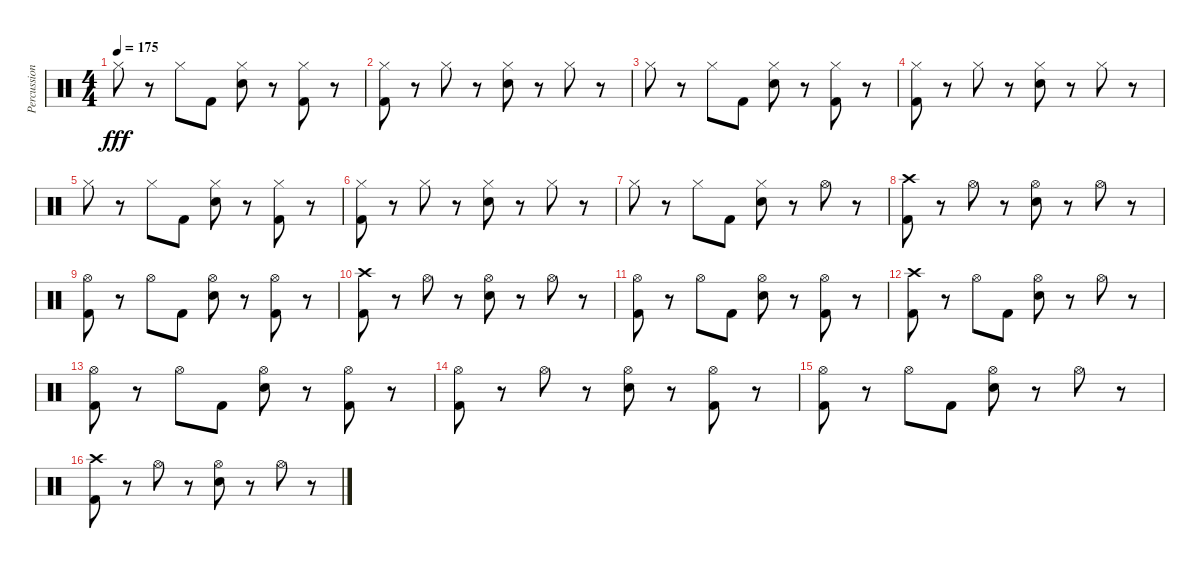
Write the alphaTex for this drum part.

\track ("Percussion" "Percussion") {instrument percussion}
\staff {score}
\articulation defaults
\ts (4 4)
\tempo 175
\clef neutral
\ks c "Hi-Hat (closed)".8{dy fff}
r.8 "Hi-Hat (closed)".8 "Kick (hit) 2".8 ("Hi-Hat (closed)" "Electric Snare (hit)").8 r.8 ("Hi-Hat (closed)" "Kick (hit) 2").8 r.8 |
("Hi-Hat (closed)" "Kick (hit) 2").8 r.8 "Hi-Hat (closed)".8 r.8 ("Hi-Hat (closed)" "Electric Snare (hit)").8 r.8 "Hi-Hat (closed)".8 r.8 |
"Hi-Hat (closed)".8 r.8 "Hi-Hat (closed)".8 "Kick (hit) 2".8 ("Hi-Hat (closed)" "Electric Snare (hit)").8 r.8 ("Hi-Hat (closed)" "Kick (hit) 2").8 r.8 |
("Hi-Hat (closed)" "Kick (hit) 2").8 r.8 "Hi-Hat (closed)".8 r.8 ("Hi-Hat (closed)" "Electric Snare (hit)").8 r.8 "Hi-Hat (closed)".8 r.8 |
"Hi-Hat (closed)".8 r.8 "Hi-Hat (closed)".8 "Kick (hit) 2".8 ("Hi-Hat (closed)" "Electric Snare (hit)").8 r.8 ("Hi-Hat (closed)" "Kick (hit) 2").8 r.8 |
("Hi-Hat (closed)" "Kick (hit) 2").8 r.8 "Hi-Hat (closed)".8 r.8 ("Hi-Hat (closed)" "Electric Snare (hit)").8 r.8 "Hi-Hat (closed)".8 r.8 |
"Hi-Hat (closed)".8 r.8 "Hi-Hat (closed)".8 "Kick (hit) 2".8 ("Hi-Hat (closed)" "Electric Snare (hit)").8 r.8 "Hi-Hat (open)".8 r.8 |
("Crash high (hit)" "Kick (hit) 2").8 r.8 "Hi-Hat (open)".8 r.8 ("Hi-Hat (open)" "Electric Snare (hit)").8 r.8 "Hi-Hat (open)".8 r.8 |
("Hi-Hat (open)" "Kick (hit) 2").8 r.8 "Hi-Hat (open)".8 "Kick (hit) 2".8 ("Hi-Hat (open)" "Electric Snare (hit)").8 r.8 ("Hi-Hat (open)" "Kick (hit) 2").8 r.8 |
("Crash high (hit)" "Kick (hit) 2").8 r.8 "Hi-Hat (open)".8 r.8 ("Hi-Hat (open)" "Electric Snare (hit)").8 r.8 "Hi-Hat (open)".8 r.8 |
("Hi-Hat (open)" "Kick (hit) 2").8 r.8 "Hi-Hat (open)".8 "Kick (hit) 2".8 ("Hi-Hat (open)" "Electric Snare (hit)").8 r.8 ("Hi-Hat (open)" "Kick (hit) 2").8 r.8 |
("Crash high (hit)" "Kick (hit) 2").8 r.8 "Hi-Hat (open)".8 "Kick (hit) 2".8 ("Hi-Hat (open)" "Electric Snare (hit)").8 r.8 "Hi-Hat (open)".8 r.8 |
("Hi-Hat (open)" "Kick (hit) 2").8 r.8 "Hi-Hat (open)".8 "Kick (hit) 2".8 ("Hi-Hat (open)" "Electric Snare (hit)").8 r.8 ("Hi-Hat (open)" "Kick (hit) 2").8 r.8 |
("Hi-Hat (open)" "Kick (hit) 2").8 r.8 "Hi-Hat (open)".8 r.8 ("Hi-Hat (open)" "Electric Snare (hit)").8 r.8 ("Hi-Hat (open)" "Kick (hit) 2").8 r.8 |
("Hi-Hat (open)" "Kick (hit) 2").8 r.8 "Hi-Hat (open)".8 "Kick (hit) 2".8 ("Hi-Hat (open)" "Electric Snare (hit)").8 r.8 "Hi-Hat (open)".8 r.8 |
("Crash high (hit)" "Kick (hit) 2").8 r.8 "Hi-Hat (open)".8 r.8 ("Hi-Hat (open)" "Electric Snare (hit)").8 r.8 "Hi-Hat (open)".8 r.8
